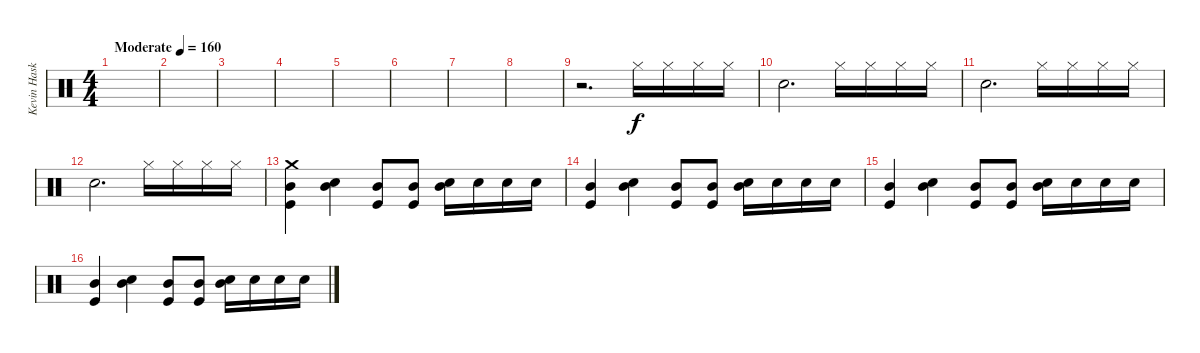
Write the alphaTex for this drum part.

\track ("Kevin Haskins" "Kevin Hask") {instrument percussion}
\staff {score}
\articulation defaults
\ts (4 4)
\tempo (160 "Moderate")
\clef neutral
\ks c
|
|
|
|
|
|
|
|
r.2{d} "Hi-Hat (closed)".16 "Hi-Hat (closed)".16 "Hi-Hat (closed)".16 "Hi-Hat (closed)".16 |
"Snare (hit) 2".2{d} "Hi-Hat (closed)".16 "Hi-Hat (closed)".16 "Hi-Hat (closed)".16 "Hi-Hat (closed)".16 |
"Snare (hit) 2".2{d} "Hi-Hat (closed)".16 "Hi-Hat (closed)".16 "Hi-Hat (closed)".16 "Hi-Hat (closed)".16 |
"Snare (hit) 2".2{d} "Hi-Hat (closed)".16 "Hi-Hat (closed)".16 "Hi-Hat (closed)".16 "Hi-Hat (closed)".16 |
("Crash medium (hit)" "Mid Tom (hit)" "Kick (hit)").4 ("Snare (hit) 2" "Mid Tom (hit)").4 ("Mid Tom (hit)" "Kick (hit)").8 ("Mid Tom (hit)" "Kick (hit)").8 ("Snare (hit) 2" "Mid Tom (hit)").16 "Snare (hit) 2".16 "Snare (hit) 2".16 "Snare (hit) 2".16 |
("Mid Tom (hit)" "Kick (hit)").4 ("Snare (hit) 2" "Mid Tom (hit)").4 ("Mid Tom (hit)" "Kick (hit)").8 ("Mid Tom (hit)" "Kick (hit)").8 ("Snare (hit) 2" "Mid Tom (hit)").16 "Snare (hit) 2".16 "Snare (hit) 2".16 "Snare (hit) 2".16 |
("Mid Tom (hit)" "Kick (hit)").4 ("Snare (hit) 2" "Mid Tom (hit)").4 ("Mid Tom (hit)" "Kick (hit)").8 ("Mid Tom (hit)" "Kick (hit)").8 ("Snare (hit) 2" "Mid Tom (hit)").16 "Snare (hit) 2".16 "Snare (hit) 2".16 "Snare (hit) 2".16 |
("Mid Tom (hit)" "Kick (hit)").4 ("Snare (hit) 2" "Mid Tom (hit)").4 ("Mid Tom (hit)" "Kick (hit)").8 ("Mid Tom (hit)" "Kick (hit)").8 ("Snare (hit) 2" "Mid Tom (hit)").16 "Snare (hit) 2".16 "Snare (hit) 2".16 "Snare (hit) 2".16
